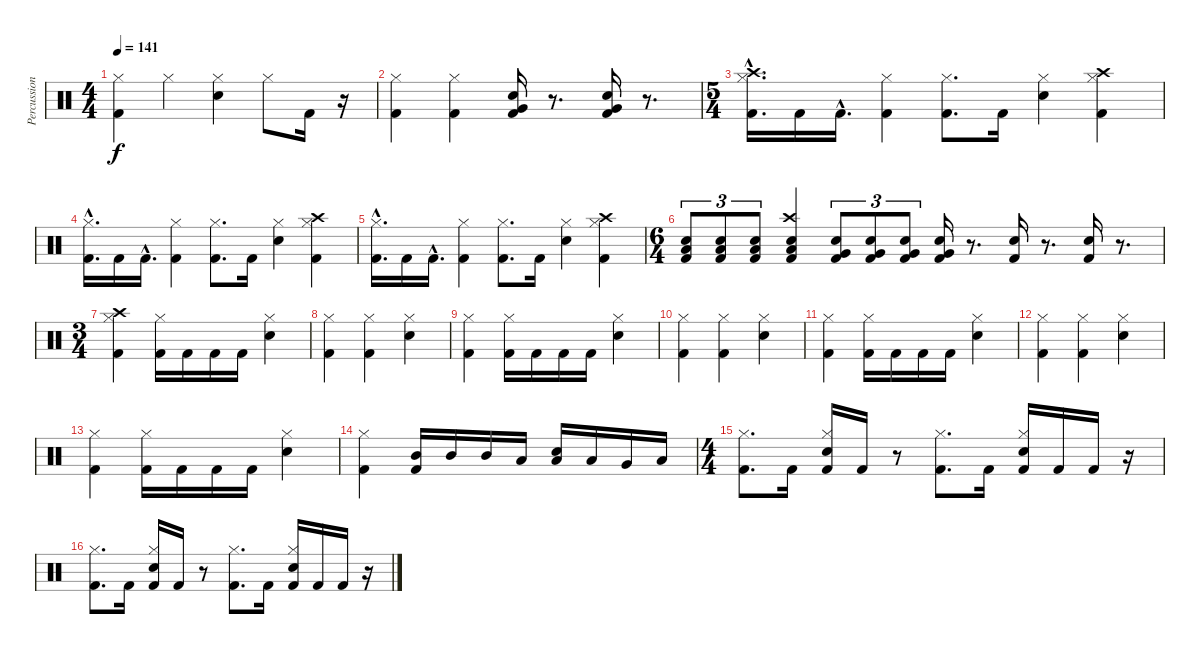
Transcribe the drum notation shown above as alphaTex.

\track ("Percussion" "Percussion") {instrument percussion}
\staff {score}
\articulation defaults
\ts (4 4)
\tempo 141
\clef neutral
\ks c
("Kick (hit) 2" "Hi-Hat (closed)").4{dy f} "Hi-Hat (closed)".4 ("Snare (hit) 2" "Hi-Hat (closed)").4 "Hi-Hat (closed)".8 "Kick (hit) 2".16 r.16 |
("Kick (hit) 2" "Hi-Hat (closed)").4 ("Kick (hit) 2" "Hi-Hat (closed)").4 ("Kick (hit) 2" "Snare (hit) 2" "Very Low Tom (hit)").16 r.8{d} ("Kick (hit) 2" "Snare (hit) 2" "Very Low Tom (hit)").16 r.8{d} |
\ts (5 4)
("Kick (hit) 2"{hac} "Hi-Hat (closed)"{hac} "Crash high (hit)").16{d} "Kick (hit) 2".16 "Kick (hit) 2"{hac}.16{d} ("Kick (hit) 2" "Hi-Hat (closed)").4 ("Kick (hit) 2" "Hi-Hat (closed)").8{d} "Kick (hit) 2".16 ("Snare (hit) 2" "Hi-Hat (closed)").4 ("Kick (hit) 2" "Hi-Hat (closed)" "Crash high (hit)").4 |
("Kick (hit) 2"{hac} "Hi-Hat (closed)"{hac}).16{d} "Kick (hit) 2".16 "Kick (hit) 2"{hac}.16{d} ("Kick (hit) 2" "Hi-Hat (closed)").4 ("Kick (hit) 2" "Hi-Hat (closed)").8{d} "Kick (hit) 2".16 ("Snare (hit) 2" "Hi-Hat (closed)").4 ("Kick (hit) 2" "Hi-Hat (closed)" "Crash high (hit)").4 |
("Kick (hit) 2"{hac} "Hi-Hat (closed)"{hac}).16{d} "Kick (hit) 2".16 "Kick (hit) 2"{hac}.16{d} ("Kick (hit) 2" "Hi-Hat (closed)").4 ("Kick (hit) 2" "Hi-Hat (closed)").8{d} "Kick (hit) 2".16 ("Snare (hit) 2" "Hi-Hat (closed)").4 ("Kick (hit) 2" "Hi-Hat (closed)" "Crash high (hit)").4 |
\ts (6 4)
("Kick (hit) 2" "Snare (hit) 2" "Low Floor Tom (hit)").8{tu (3 2)} ("Kick (hit) 2" "Snare (hit) 2" "Low Floor Tom (hit)").8{tu (3 2)} ("Kick (hit) 2" "Snare (hit) 2" "Low Floor Tom (hit)").8{tu (3 2)} ("Kick (hit) 2" "Snare (hit) 2" "Low Floor Tom (hit)" "Crash high (hit)").4 ("Kick (hit) 2" "Snare (hit) 2" "Very Low Tom (hit)").8{tu (3 2)} ("Kick (hit) 2" "Snare (hit) 2" "Very Low Tom (hit)").8{tu (3 2)} ("Kick (hit) 2" "Snare (hit) 2" "Very Low Tom (hit)").8{tu (3 2)} ("Kick (hit) 2" "Snare (hit) 2" "Very Low Tom (hit)").16 r.8{d} ("Kick (hit) 2" "Snare (hit) 2").16 r.8{d} ("Kick (hit) 2" "Snare (hit) 2").16 r.8{d} |
\ts (3 4)
("Kick (hit) 2" "Hi-Hat (closed)" "Crash high (hit)").4 ("Kick (hit) 2" "Hi-Hat (closed)").16 "Kick (hit) 2".16 "Kick (hit) 2".16 "Kick (hit) 2".16 ("Snare (hit) 2" "Hi-Hat (closed)").4 |
("Kick (hit) 2" "Hi-Hat (closed)").4 ("Kick (hit) 2" "Hi-Hat (closed)").4 ("Snare (hit) 2" "Hi-Hat (closed)").4 |
("Kick (hit) 2" "Hi-Hat (closed)").4 ("Kick (hit) 2" "Hi-Hat (closed)").16 "Kick (hit) 2".16 "Kick (hit) 2".16 "Kick (hit) 2".16 ("Snare (hit) 2" "Hi-Hat (closed)").4 |
("Kick (hit) 2" "Hi-Hat (closed)").4 ("Kick (hit) 2" "Hi-Hat (closed)").4 ("Snare (hit) 2" "Hi-Hat (closed)").4 |
("Kick (hit) 2" "Hi-Hat (closed)").4 ("Kick (hit) 2" "Hi-Hat (closed)").16 "Kick (hit) 2".16 "Kick (hit) 2".16 "Kick (hit) 2".16 ("Snare (hit) 2" "Hi-Hat (closed)").4 |
("Kick (hit) 2" "Hi-Hat (closed)").4 ("Kick (hit) 2" "Hi-Hat (closed)").4 ("Snare (hit) 2" "Hi-Hat (closed)").4 |
("Kick (hit) 2" "Hi-Hat (closed)").4 ("Kick (hit) 2" "Hi-Hat (closed)").16 "Kick (hit) 2".16 "Kick (hit) 2".16 "Kick (hit) 2".16 ("Snare (hit) 2" "Hi-Hat (closed)").4 |
("Kick (hit) 2" "Hi-Hat (closed)").4 ("Kick (hit) 2" "Mid Tom (hit)").16 "Mid Tom (hit)".16 "Mid Tom (hit)".16 "Low Tom (hit)".16 ("Snare (hit) 2" "Low Tom (hit)").16 "Low Tom (hit)".16 "Very Low Tom (hit)".16 "Low Floor Tom (hit)".16 |
\ts (4 4)
("Kick (hit) 2" "Hi-Hat (closed)").8{d} "Kick (hit) 2".16 ("Kick (hit) 2" "Snare (hit) 2" "Hi-Hat (closed)").16 "Kick (hit) 2".16 r.8 ("Kick (hit) 2" "Hi-Hat (closed)").8{d} "Kick (hit) 2".16 ("Kick (hit) 2" "Snare (hit) 2" "Hi-Hat (closed)").16 "Kick (hit) 2".16 "Kick (hit) 2".16 r.16 |
("Kick (hit) 2" "Hi-Hat (closed)").8{d} "Kick (hit) 2".16 ("Kick (hit) 2" "Snare (hit) 2" "Hi-Hat (closed)").16 "Kick (hit) 2".16 r.8 ("Kick (hit) 2" "Hi-Hat (closed)").8{d} "Kick (hit) 2".16 ("Kick (hit) 2" "Snare (hit) 2" "Hi-Hat (closed)").16 "Kick (hit) 2".16 "Kick (hit) 2".16 r.16
